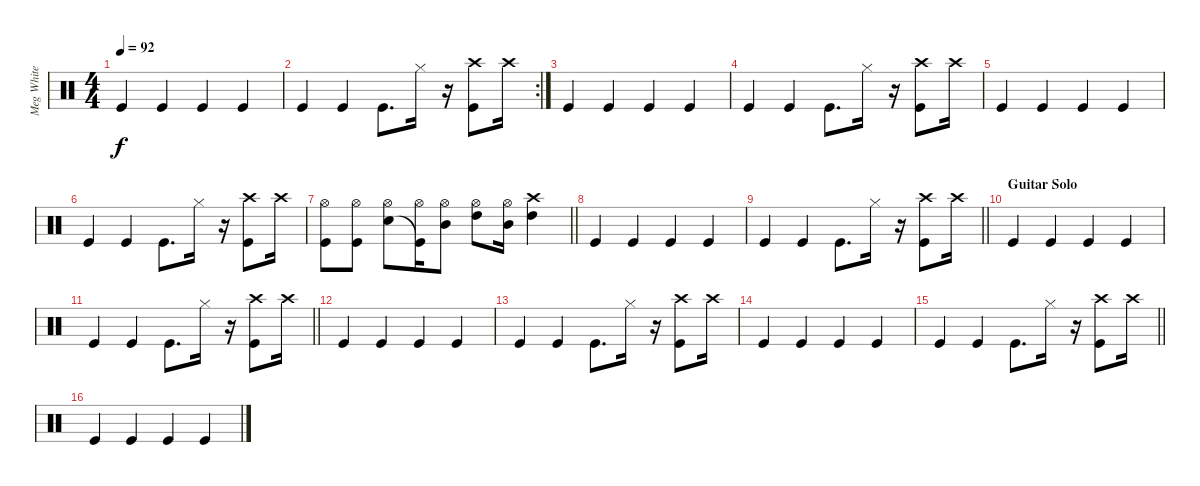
\track ("Meg White" "Meg White") {instrument percussion}
\staff {score}
\articulation defaults
\ts (4 4)
\tempo 92
\clef neutral
\ks c "Kick (hit)".4{dy f} "Kick (hit)".4 "Kick (hit)".4 "Kick (hit)".4
|
\rc 2 "Kick (hit)".4 "Kick (hit)".4 "Kick (hit)".8{d} "Hi-Hat (closed)".16
r.16 ("Kick (hit)" "Crash high (hit)").8 "Crash high (hit)".16 |
"Kick (hit)".4 "Kick (hit)".4 "Kick (hit)".4 "Kick (hit)".4 |
"Kick (hit)".4 "Kick (hit)".4 "Kick (hit)".8{d} "Hi-Hat (closed)".16 r.16 ("Kick (hit)" "Crash high (hit)").8 "Crash high (hit)".16 |
"Kick (hit)".4 "Kick (hit)".4 "Kick (hit)".4 "Kick (hit)".4 |
"Kick (hit)".4 "Kick (hit)".4 "Kick (hit)".8{d} "Hi-Hat (closed)".16 r.16 ("Kick (hit)" "Crash high (hit)").8 "Crash high (hit)".16 |
\barLineRight lightlight
("Kick (hit)" "Hi-Hat (open)").8 ("Kick (hit)" "Hi-Hat (open)").8 ("Snare (hit) 2" "Hi-Hat (open)").8 ("Kick (hit)"{t} "Hi-Hat (open)").16 ("Mid Tom (hit)" "Hi-Hat (open)").8 ("High Tom (hit)" "Hi-Hat (open)").8 ("Mid Tom (hit)" "Hi-Hat (open)").16 ("High Tom (hit)" "Crash high (hit)").4 |
"Kick (hit)".4 "Kick (hit)".4 "Kick (hit)".4 "Kick (hit)".4 |
\barLineRight lightlight "Kick (hit)".4 "Kick (hit)".4 "Kick (hit)".8{d} "Hi-Hat (closed)".16
r.16 ("Kick (hit)" "Crash high (hit)").8 "Crash high (hit)".16 |
\section ("" "Guitar Solo")
"Kick (hit)".4 "Kick (hit)".4 "Kick (hit)".4 "Kick (hit)".4 |
\barLineRight lightlight "Kick (hit)".4 "Kick (hit)".4 "Kick (hit)".8{d} "Hi-Hat (closed)".16
r.16 ("Kick (hit)" "Crash high (hit)").8 "Crash high (hit)".16 |
"Kick (hit)".4 "Kick (hit)".4 "Kick (hit)".4 "Kick (hit)".4 |
"Kick (hit)".4 "Kick (hit)".4 "Kick (hit)".8{d} "Hi-Hat (closed)".16 r.16 ("Kick (hit)" "Crash high (hit)").8 "Crash high (hit)".16 |
"Kick (hit)".4 "Kick (hit)".4 "Kick (hit)".4 "Kick (hit)".4 |
\barLineRight lightlight "Kick (hit)".4 "Kick (hit)".4 "Kick (hit)".8{d} "Hi-Hat (closed)".16
r.16 ("Kick (hit)" "Crash high (hit)").8 "Crash high (hit)".16 |
"Kick (hit)".4 "Kick (hit)".4 "Kick (hit)".4 "Kick (hit)".4
